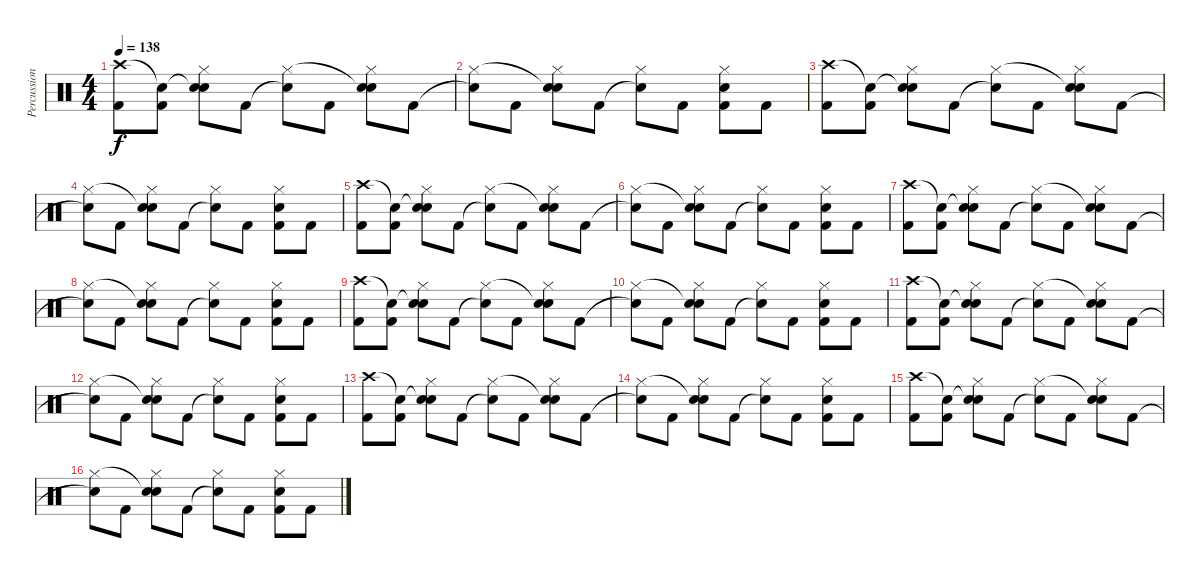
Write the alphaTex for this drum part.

\track ("Percussion" "Percussion") {instrument percussion}
\staff {score}
\articulation defaults
\ts (4 4)
\tempo 138
\clef neutral
\ks c
("Kick (hit) 2" "Crash high (hit)").8{dy f} ("Kick (hit) 2" "Snare (hit)"{t}).8 ("Snare (hit) 2" "Snare (hit)"{t} "Hi-Hat (closed)").8 "Kick (hit) 2".8 ("Snare (hit)"{t} "Hi-Hat (closed)").8 "Kick (hit) 2".8 ("Snare (hit) 2" "Snare (hit)"{t} "Hi-Hat (closed)").8 "Kick (hit) 2".8 |
("Snare (hit)"{t} "Hi-Hat (closed)").8 "Kick (hit) 2".8 ("Snare (hit) 2" "Snare (hit)"{t} "Hi-Hat (closed)").8 "Kick (hit) 2".8 ("Snare (hit)"{t} "Hi-Hat (closed)").8 "Kick (hit) 2".8 ("Snare (hit) 2" "Kick (hit) 2" "Hi-Hat (closed)").8 "Kick (hit) 2".8 |
("Kick (hit) 2" "Crash high (hit)").8 ("Kick (hit) 2" "Snare (hit)"{t}).8 ("Snare (hit) 2" "Snare (hit)"{t} "Hi-Hat (closed)").8 "Kick (hit) 2".8 ("Snare (hit)"{t} "Hi-Hat (closed)").8 "Kick (hit) 2".8 ("Snare (hit) 2" "Snare (hit)"{t} "Hi-Hat (closed)").8 "Kick (hit) 2".8 |
("Snare (hit)"{t} "Hi-Hat (closed)").8 "Kick (hit) 2".8 ("Snare (hit) 2" "Snare (hit)"{t} "Hi-Hat (closed)").8 "Kick (hit) 2".8 ("Snare (hit)"{t} "Hi-Hat (closed)").8 "Kick (hit) 2".8 ("Snare (hit) 2" "Kick (hit) 2" "Hi-Hat (closed)").8 "Kick (hit) 2".8 |
("Kick (hit) 2" "Crash high (hit)").8 ("Kick (hit) 2" "Snare (hit)"{t}).8 ("Snare (hit) 2" "Snare (hit)"{t} "Hi-Hat (closed)").8 "Kick (hit) 2".8 ("Snare (hit)"{t} "Hi-Hat (closed)").8 "Kick (hit) 2".8 ("Snare (hit) 2" "Snare (hit)"{t} "Hi-Hat (closed)").8 "Kick (hit) 2".8 |
("Snare (hit)"{t} "Hi-Hat (closed)").8 "Kick (hit) 2".8 ("Snare (hit) 2" "Snare (hit)"{t} "Hi-Hat (closed)").8 "Kick (hit) 2".8 ("Snare (hit)"{t} "Hi-Hat (closed)").8 "Kick (hit) 2".8 ("Snare (hit) 2" "Kick (hit) 2" "Hi-Hat (closed)").8 "Kick (hit) 2".8 |
("Kick (hit) 2" "Crash high (hit)").8 ("Kick (hit) 2" "Snare (hit)"{t}).8 ("Snare (hit) 2" "Snare (hit)"{t} "Hi-Hat (closed)").8 "Kick (hit) 2".8 ("Snare (hit)"{t} "Hi-Hat (closed)").8 "Kick (hit) 2".8 ("Snare (hit) 2" "Snare (hit)"{t} "Hi-Hat (closed)").8 "Kick (hit) 2".8 |
("Snare (hit)"{t} "Hi-Hat (closed)").8 "Kick (hit) 2".8 ("Snare (hit) 2" "Snare (hit)"{t} "Hi-Hat (closed)").8 "Kick (hit) 2".8 ("Snare (hit)"{t} "Hi-Hat (closed)").8 "Kick (hit) 2".8 ("Snare (hit) 2" "Kick (hit) 2" "Hi-Hat (closed)").8 "Kick (hit) 2".8 |
("Kick (hit) 2" "Crash high (hit)").8 ("Kick (hit) 2" "Snare (hit)"{t}).8 ("Snare (hit) 2" "Snare (hit)"{t} "Hi-Hat (closed)").8 "Kick (hit) 2".8 ("Snare (hit)"{t} "Hi-Hat (closed)").8 "Kick (hit) 2".8 ("Snare (hit) 2" "Snare (hit)"{t} "Hi-Hat (closed)").8 "Kick (hit) 2".8 |
("Snare (hit)"{t} "Hi-Hat (closed)").8 "Kick (hit) 2".8 ("Snare (hit) 2" "Snare (hit)"{t} "Hi-Hat (closed)").8 "Kick (hit) 2".8 ("Snare (hit)"{t} "Hi-Hat (closed)").8 "Kick (hit) 2".8 ("Snare (hit) 2" "Kick (hit) 2" "Hi-Hat (closed)").8 "Kick (hit) 2".8 |
("Kick (hit) 2" "Crash high (hit)").8 ("Kick (hit) 2" "Snare (hit)"{t}).8 ("Snare (hit) 2" "Snare (hit)"{t} "Hi-Hat (closed)").8 "Kick (hit) 2".8 ("Snare (hit)"{t} "Hi-Hat (closed)").8 "Kick (hit) 2".8 ("Snare (hit) 2" "Snare (hit)"{t} "Hi-Hat (closed)").8 "Kick (hit) 2".8 |
("Snare (hit)"{t} "Hi-Hat (closed)").8 "Kick (hit) 2".8 ("Snare (hit) 2" "Snare (hit)"{t} "Hi-Hat (closed)").8 "Kick (hit) 2".8 ("Snare (hit)"{t} "Hi-Hat (closed)").8 "Kick (hit) 2".8 ("Snare (hit) 2" "Kick (hit) 2" "Hi-Hat (closed)").8 "Kick (hit) 2".8 |
("Kick (hit) 2" "Crash high (hit)").8 ("Kick (hit) 2" "Snare (hit)"{t}).8 ("Snare (hit) 2" "Snare (hit)"{t} "Hi-Hat (closed)").8 "Kick (hit) 2".8 ("Snare (hit)"{t} "Hi-Hat (closed)").8 "Kick (hit) 2".8 ("Snare (hit) 2" "Snare (hit)"{t} "Hi-Hat (closed)").8 "Kick (hit) 2".8 |
("Snare (hit)"{t} "Hi-Hat (closed)").8 "Kick (hit) 2".8 ("Snare (hit) 2" "Snare (hit)"{t} "Hi-Hat (closed)").8 "Kick (hit) 2".8 ("Snare (hit)"{t} "Hi-Hat (closed)").8 "Kick (hit) 2".8 ("Snare (hit) 2" "Kick (hit) 2" "Hi-Hat (closed)").8 "Kick (hit) 2".8 |
("Kick (hit) 2" "Crash high (hit)").8 ("Kick (hit) 2" "Snare (hit)"{t}).8 ("Snare (hit) 2" "Snare (hit)"{t} "Hi-Hat (closed)").8 "Kick (hit) 2".8 ("Snare (hit)"{t} "Hi-Hat (closed)").8 "Kick (hit) 2".8 ("Snare (hit) 2" "Snare (hit)"{t} "Hi-Hat (closed)").8 "Kick (hit) 2".8 |
("Snare (hit)"{t} "Hi-Hat (closed)").8 "Kick (hit) 2".8 ("Snare (hit) 2" "Snare (hit)"{t} "Hi-Hat (closed)").8 "Kick (hit) 2".8 ("Snare (hit)"{t} "Hi-Hat (closed)").8 "Kick (hit) 2".8 ("Snare (hit) 2" "Kick (hit) 2" "Hi-Hat (closed)").8 "Kick (hit) 2".8
